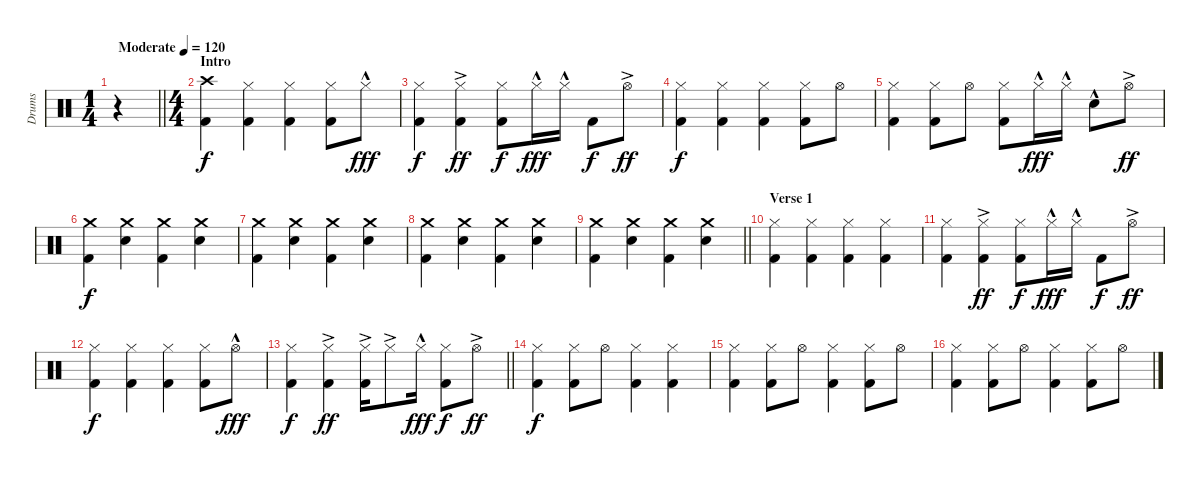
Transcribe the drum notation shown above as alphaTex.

\track ("Drums" "Drums") {instrument percussion}
\staff {score}
\articulation defaults
\ts (1 4)
\tempo (120 "Moderate")
\clef neutral
\barLineRight lightlight
\ks c
r.4{dy f} |
\ts (4 4)
\section ("" "Intro")
("Kick (hit) 2" "Crash high (hit)").4 ("Kick (hit) 2" "Hi-Hat (closed)").4 ("Kick (hit) 2" "Hi-Hat (closed)").4 ("Kick (hit) 2" "Hi-Hat (closed)").8 "Hi-Hat (closed)"{hac}.8{dy fff} |
("Kick (hit) 2" "Hi-Hat (closed)").4{dy f} ("Kick (hit) 2" "Hi-Hat (closed)"{ac}).4{dy ff} ("Kick (hit) 2" "Hi-Hat (closed)").8{dy f} "Hi-Hat (closed)"{hac}.16{dy fff} "Hi-Hat (closed)"{hac}.16 "Kick (hit) 2".8{dy f} "Hi-Hat (open)"{ac}.8{dy ff} |
("Kick (hit) 2" "Hi-Hat (closed)").4{dy f} ("Kick (hit) 2" "Hi-Hat (closed)").4 ("Kick (hit) 2" "Hi-Hat (closed)").4 ("Kick (hit) 2" "Hi-Hat (closed)").8 "Hi-Hat (open)".8 |
("Kick (hit) 2" "Hi-Hat (closed)").4 ("Kick (hit) 2" "Hi-Hat (closed)").8 "Hi-Hat (open)".8 ("Kick (hit) 2" "Hi-Hat (closed)").8 "Hi-Hat (closed)"{hac}.16{dy fff} "Hi-Hat (closed)"{hac}.16 "Electric Snare (hit)"{hac}.8 "Hi-Hat (open)"{ac}.8{dy ff} |
("Kick (hit) 2" "Crash medium (hit)").4{dy f} ("Electric Snare (hit)" "Crash medium (hit)").4 ("Kick (hit) 2" "Crash medium (hit)").4 ("Electric Snare (hit)" "Crash medium (hit)").4 |
("Kick (hit) 2" "Crash medium (hit)").4 ("Electric Snare (hit)" "Crash medium (hit)").4 ("Kick (hit) 2" "Crash medium (hit)").4 ("Electric Snare (hit)" "Crash medium (hit)").4 |
("Kick (hit) 2" "Crash medium (hit)").4 ("Electric Snare (hit)" "Crash medium (hit)").4 ("Kick (hit) 2" "Crash medium (hit)").4 ("Electric Snare (hit)" "Crash medium (hit)").4 |
\barLineRight lightlight
("Kick (hit) 2" "Crash medium (hit)").4 ("Electric Snare (hit)" "Crash medium (hit)").4 ("Kick (hit) 2" "Crash medium (hit)").4 ("Electric Snare (hit)" "Crash medium (hit)").4 |
\section ("" "Verse 1")
("Hi-Hat (closed)" "Kick (hit) 2").4 ("Hi-Hat (closed)" "Kick (hit) 2").4 ("Hi-Hat (closed)" "Kick (hit) 2").4 ("Hi-Hat (closed)" "Kick (hit) 2").4 |
("Kick (hit) 2" "Hi-Hat (closed)").4 ("Kick (hit) 2" "Hi-Hat (closed)"{ac}).4{dy ff} ("Kick (hit) 2" "Hi-Hat (closed)").8{dy f} "Hi-Hat (closed)"{hac}.16{dy fff} "Hi-Hat (closed)"{hac}.16 "Kick (hit) 2".8{dy f} "Hi-Hat (open)"{ac}.8{dy ff} |
("Hi-Hat (closed)" "Kick (hit) 2").4{dy f} ("Hi-Hat (closed)" "Kick (hit) 2").4 ("Hi-Hat (closed)" "Kick (hit) 2").4 ("Hi-Hat (closed)" "Kick (hit) 2").8 "Hi-Hat (open)"{hac}.8{dy fff} |
\barLineRight lightlight
("Kick (hit) 2" "Hi-Hat (closed)").4{dy f} ("Kick (hit) 2" "Hi-Hat (closed)"{ac}).4{dy ff} ("Kick (hit) 2" "Hi-Hat (closed)"{ac}).16 "Hi-Hat (closed)"{ac}.8 "Hi-Hat (closed)"{hac}.16{dy fff} ("Kick (hit) 2" "Hi-Hat (closed)").8{dy f} "Hi-Hat (open)"{ac}.8{dy ff} |
("Hi-Hat (closed)" "Kick (hit) 2").4{dy f} ("Hi-Hat (closed)" "Kick (hit) 2").8 "Hi-Hat (open)".8 ("Hi-Hat (closed)" "Kick (hit) 2").4 ("Hi-Hat (closed)" "Kick (hit) 2").4 |
("Hi-Hat (closed)" "Kick (hit) 2").4 ("Hi-Hat (closed)" "Kick (hit) 2").8 "Hi-Hat (open)".8 ("Hi-Hat (closed)" "Kick (hit) 2").4 ("Hi-Hat (closed)" "Kick (hit) 2").8 "Hi-Hat (open)".8 |
("Hi-Hat (closed)" "Kick (hit) 2").4 ("Hi-Hat (closed)" "Kick (hit) 2").8 "Hi-Hat (open)".8 ("Hi-Hat (closed)" "Kick (hit) 2").4 ("Hi-Hat (closed)" "Kick (hit) 2").8 "Hi-Hat (open)".8
